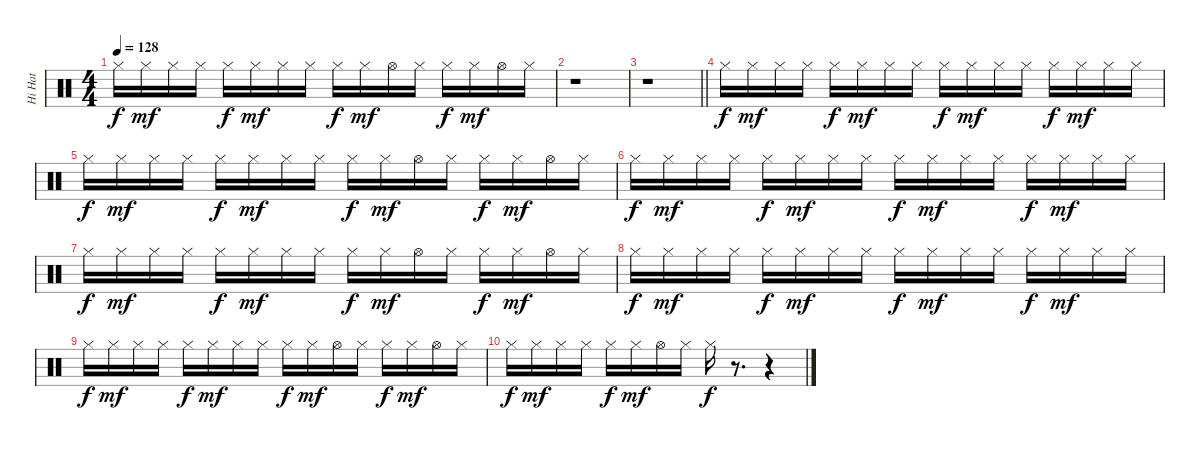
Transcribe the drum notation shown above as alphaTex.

\track ("Hi Hat" "Hi Hat") {instrument percussion}
\staff {score}
\articulation defaults
\ts (4 4)
\tempo 128
\clef neutral
\ks c "Hi-Hat (closed)".16{dy f} "Hi-Hat (closed)".16{dy mf} "Hi-Hat (closed)".16 "Hi-Hat (closed)".16 "Hi-Hat (closed)".16{dy f} "Hi-Hat (closed)".16{dy mf} "Hi-Hat (closed)".16 "Hi-Hat (closed)".16 "Hi-Hat (closed)".16{dy f} "Hi-Hat (closed)".16{dy mf} "Hi-Hat (open)".16 "Hi-Hat (closed)".16 "Hi-Hat (closed)".16{dy f} "Hi-Hat (closed)".16{dy mf} "Hi-Hat (open)".16 "Hi-Hat (closed)".16
|
r.1 |
\barLineRight lightlight
r.1 |
"Hi-Hat (closed)".16{dy f} "Hi-Hat (closed)".16{dy mf} "Hi-Hat (closed)".16 "Hi-Hat (closed)".16 "Hi-Hat (closed)".16{dy f} "Hi-Hat (closed)".16{dy mf} "Hi-Hat (closed)".16 "Hi-Hat (closed)".16 "Hi-Hat (closed)".16{dy f} "Hi-Hat (closed)".16{dy mf} "Hi-Hat (closed)".16 "Hi-Hat (closed)".16 "Hi-Hat (closed)".16{dy f} "Hi-Hat (closed)".16{dy mf} "Hi-Hat (closed)".16 "Hi-Hat (closed)".16 |
"Hi-Hat (closed)".16{dy f} "Hi-Hat (closed)".16{dy mf} "Hi-Hat (closed)".16 "Hi-Hat (closed)".16 "Hi-Hat (closed)".16{dy f} "Hi-Hat (closed)".16{dy mf} "Hi-Hat (closed)".16 "Hi-Hat (closed)".16 "Hi-Hat (closed)".16{dy f} "Hi-Hat (closed)".16{dy mf} "Hi-Hat (open)".16 "Hi-Hat (closed)".16 "Hi-Hat (closed)".16{dy f} "Hi-Hat (closed)".16{dy mf} "Hi-Hat (open)".16 "Hi-Hat (closed)".16 |
"Hi-Hat (closed)".16{dy f} "Hi-Hat (closed)".16{dy mf} "Hi-Hat (closed)".16 "Hi-Hat (closed)".16 "Hi-Hat (closed)".16{dy f} "Hi-Hat (closed)".16{dy mf} "Hi-Hat (closed)".16 "Hi-Hat (closed)".16 "Hi-Hat (closed)".16{dy f} "Hi-Hat (closed)".16{dy mf} "Hi-Hat (closed)".16 "Hi-Hat (closed)".16 "Hi-Hat (closed)".16{dy f} "Hi-Hat (closed)".16{dy mf} "Hi-Hat (closed)".16 "Hi-Hat (closed)".16 |
"Hi-Hat (closed)".16{dy f} "Hi-Hat (closed)".16{dy mf} "Hi-Hat (closed)".16 "Hi-Hat (closed)".16 "Hi-Hat (closed)".16{dy f} "Hi-Hat (closed)".16{dy mf} "Hi-Hat (closed)".16 "Hi-Hat (closed)".16 "Hi-Hat (closed)".16{dy f} "Hi-Hat (closed)".16{dy mf} "Hi-Hat (open)".16 "Hi-Hat (closed)".16 "Hi-Hat (closed)".16{dy f} "Hi-Hat (closed)".16{dy mf} "Hi-Hat (open)".16 "Hi-Hat (closed)".16 |
"Hi-Hat (closed)".16{dy f} "Hi-Hat (closed)".16{dy mf} "Hi-Hat (closed)".16 "Hi-Hat (closed)".16 "Hi-Hat (closed)".16{dy f} "Hi-Hat (closed)".16{dy mf} "Hi-Hat (closed)".16 "Hi-Hat (closed)".16 "Hi-Hat (closed)".16{dy f} "Hi-Hat (closed)".16{dy mf} "Hi-Hat (closed)".16 "Hi-Hat (closed)".16 "Hi-Hat (closed)".16{dy f} "Hi-Hat (closed)".16{dy mf} "Hi-Hat (closed)".16 "Hi-Hat (closed)".16 |
"Hi-Hat (closed)".16{dy f} "Hi-Hat (closed)".16{dy mf} "Hi-Hat (closed)".16 "Hi-Hat (closed)".16 "Hi-Hat (closed)".16{dy f} "Hi-Hat (closed)".16{dy mf} "Hi-Hat (closed)".16 "Hi-Hat (closed)".16 "Hi-Hat (closed)".16{dy f} "Hi-Hat (closed)".16{dy mf} "Hi-Hat (open)".16 "Hi-Hat (closed)".16 "Hi-Hat (closed)".16{dy f} "Hi-Hat (closed)".16{dy mf} "Hi-Hat (open)".16 "Hi-Hat (closed)".16 |
"Hi-Hat (closed)".16{dy f} "Hi-Hat (closed)".16{dy mf} "Hi-Hat (closed)".16 "Hi-Hat (closed)".16 "Hi-Hat (closed)".16{dy f} "Hi-Hat (closed)".16{dy mf} "Hi-Hat (open)".16 "Hi-Hat (closed)".16 "Hi-Hat (closed)".16{dy f} r.8{d} r.4
